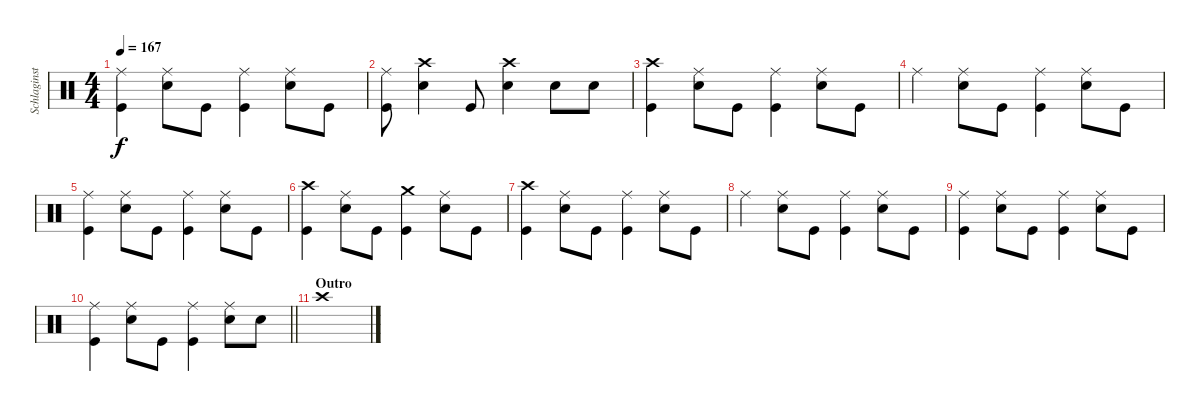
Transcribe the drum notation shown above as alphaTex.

\track ("Schlaginstrumente - Auswahl" "Schlaginst") {instrument percussion}
\staff {score}
\articulation defaults
\ts (4 4)
\tempo 167
\clef neutral
\ks c
("Ride (middle)" "Kick (hit)").4{dy f} ("Ride (middle)" "Snare (hit) 2").8 "Kick (hit)".8 ("Ride (middle)" "Kick (hit)").4 ("Ride (middle)" "Snare (hit) 2").8 "Kick (hit)".8 |
("Ride (middle)" "Kick (hit)").8 ("Crash high (hit)" "Snare (hit) 2").4 "Kick (hit)".8 ("Crash high (hit)" "Snare (hit) 2").4 "Snare (hit) 2".8 "Snare (hit) 2".8 |
("Crash high (hit)" "Kick (hit)").4 ("Ride (middle)" "Snare (hit) 2").8 "Kick (hit)".8 ("Ride (middle)" "Kick (hit)").4 ("Ride (middle)" "Snare (hit) 2").8 "Kick (hit)".8 |
"Ride (middle)".4 ("Ride (middle)" "Snare (hit) 2").8 "Kick (hit)".8 ("Ride (middle)" "Kick (hit)").4 ("Ride (middle)" "Snare (hit) 2").8 "Kick (hit)".8 |
("Ride (middle)" "Kick (hit)").4 ("Ride (middle)" "Snare (hit) 2").8 "Kick (hit)".8 ("Ride (middle)" "Kick (hit)").4 ("Ride (middle)" "Snare (hit) 2").8 "Kick (hit)".8 |
("Crash high (hit)" "Kick (hit)").4 ("Ride (middle)" "Snare (hit) 2").8 "Kick (hit)".8 ("Crash medium (hit)" "Kick (hit)").4 ("Ride (middle)" "Snare (hit) 2").8 "Kick (hit)".8 |
("Crash high (hit)" "Kick (hit)").4 ("Ride (middle)" "Snare (hit) 2").8 "Kick (hit)".8 ("Ride (middle)" "Kick (hit)").4 ("Ride (middle)" "Snare (hit) 2").8 "Kick (hit)".8 |
"Ride (middle)".4 ("Ride (middle)" "Snare (hit) 2").8 "Kick (hit)".8 ("Ride (middle)" "Kick (hit)").4 ("Ride (middle)" "Snare (hit) 2").8 "Kick (hit)".8 |
("Ride (middle)" "Kick (hit)").4 ("Ride (middle)" "Snare (hit) 2").8 "Kick (hit)".8 ("Ride (middle)" "Kick (hit)").4 ("Ride (middle)" "Snare (hit) 2").8 "Kick (hit)".8 |
\barLineRight lightlight
("Ride (middle)" "Kick (hit)").4 ("Ride (middle)" "Snare (hit) 2").8 "Kick (hit)".8 ("Ride (middle)" "Kick (hit)").4 ("Ride (middle)" "Snare (hit) 2").8 "Snare (hit) 2".8 |
\section ("" "Outro")
"Crash high (hit)".1
